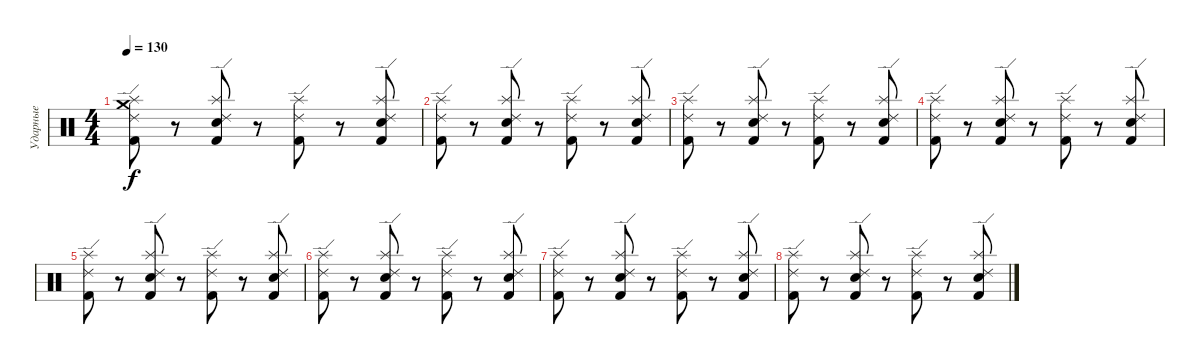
\track ("Ударные" "Ударные") {instrument percussion}
\staff {score}
\articulation defaults
\ts (4 4)
\tempo 130
\clef neutral
\ks c
("Kick (hit) 2" "Ride (edge) 2" "Splash (hit)" "Crash medium (hit)").8{dy f} r.8 ("Kick (hit) 2" "Hand Clap (hit)" "Ride (edge) 2" "Splash (hit)").8 r.8 ("Kick (hit) 2" "Ride (edge) 2" "Splash (hit)").8 r.8 ("Kick (hit) 2" "Hand Clap (hit)" "Ride (edge) 2" "Splash (hit)").8 |
("Kick (hit) 2" "Ride (edge) 2" "Splash (hit)").8 r.8 ("Kick (hit) 2" "Hand Clap (hit)" "Ride (edge) 2" "Splash (hit)").8 r.8 ("Kick (hit) 2" "Ride (edge) 2" "Splash (hit)").8 r.8 ("Kick (hit) 2" "Hand Clap (hit)" "Ride (edge) 2" "Splash (hit)").8 |
("Kick (hit) 2" "Ride (edge) 2" "Splash (hit)").8 r.8 ("Kick (hit) 2" "Hand Clap (hit)" "Ride (edge) 2" "Splash (hit)").8 r.8 ("Kick (hit) 2" "Ride (edge) 2" "Splash (hit)").8 r.8 ("Kick (hit) 2" "Hand Clap (hit)" "Ride (edge) 2" "Splash (hit)").8 |
("Kick (hit) 2" "Ride (edge) 2" "Splash (hit)").8 r.8 ("Kick (hit) 2" "Hand Clap (hit)" "Ride (edge) 2" "Splash (hit)").8 r.8 ("Kick (hit) 2" "Ride (edge) 2" "Splash (hit)").8 r.8 ("Kick (hit) 2" "Hand Clap (hit)" "Ride (edge) 2" "Splash (hit)").8 |
("Kick (hit) 2" "Ride (edge) 2" "Splash (hit)").8 r.8 ("Kick (hit) 2" "Hand Clap (hit)" "Ride (edge) 2" "Splash (hit)").8 r.8 ("Kick (hit) 2" "Ride (edge) 2" "Splash (hit)").8 r.8 ("Kick (hit) 2" "Hand Clap (hit)" "Ride (edge) 2" "Splash (hit)").8 |
("Kick (hit) 2" "Ride (edge) 2" "Splash (hit)").8 r.8 ("Kick (hit) 2" "Hand Clap (hit)" "Ride (edge) 2" "Splash (hit)").8 r.8 ("Kick (hit) 2" "Ride (edge) 2" "Splash (hit)").8 r.8 ("Kick (hit) 2" "Hand Clap (hit)" "Ride (edge) 2" "Splash (hit)").8 |
("Kick (hit) 2" "Ride (edge) 2" "Splash (hit)").8 r.8 ("Kick (hit) 2" "Hand Clap (hit)" "Ride (edge) 2" "Splash (hit)").8 r.8 ("Kick (hit) 2" "Ride (edge) 2" "Splash (hit)").8 r.8 ("Kick (hit) 2" "Hand Clap (hit)" "Ride (edge) 2" "Splash (hit)").8 |
("Kick (hit) 2" "Ride (edge) 2" "Splash (hit)").8 r.8 ("Kick (hit) 2" "Hand Clap (hit)" "Ride (edge) 2" "Splash (hit)").8 r.8 ("Kick (hit) 2" "Ride (edge) 2" "Splash (hit)").8 r.8 ("Kick (hit) 2" "Hand Clap (hit)" "Ride (edge) 2" "Splash (hit)").8
